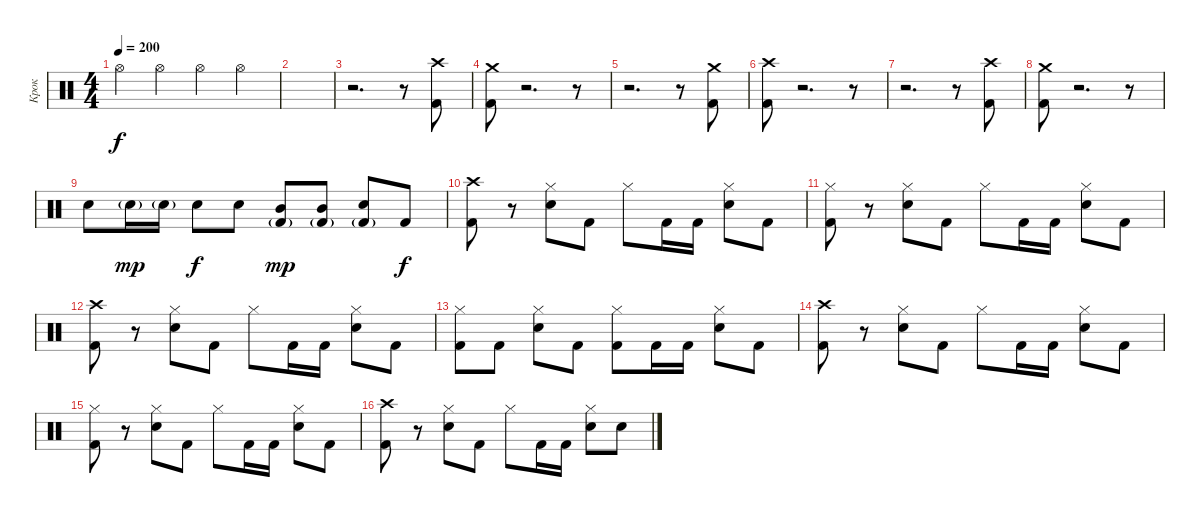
\track ("Крок" "Крок") {instrument percussion}
\staff {score}
\articulation defaults
\ts (4 4)
\tempo 200
\tempo 140
\tempo 200
\clef neutral
\ks c "Hi-Hat (open)".4{dy f} "Hi-Hat (open)".4 "Hi-Hat (open)".4 "Hi-Hat (open)".4
|
|
r.2{d} r.8 ("Crash high (hit)" "Kick (hit) 2").8 |
("Crash medium (hit)" "Kick (hit) 2").8 r.2{d} r.8 |
r.2{d} r.8 ("Crash medium (hit)" "Kick (hit) 2").8 |
("Crash high (hit)" "Kick (hit) 2").8 r.2{d} r.8 |
r.2{d} r.8 ("Crash high (hit)" "Kick (hit) 2").8 |
("Crash medium (hit)" "Kick (hit) 2").8 r.2{d} r.8 |
"Electric Snare (hit)".8 "Electric Snare (hit)"{g}.16{dy mp} "Electric Snare (hit)"{g}.16 "Electric Snare (hit)".8{dy f} "Electric Snare (hit)".8 ("Mid Tom (hit)" "Kick (hit) 2"{g}).8{dy mp} ("Mid Tom (hit)" "Kick (hit) 2"{g}).8 ("Electric Snare (hit)" "Kick (hit) 2"{g}).8 "Kick (hit) 2".8{dy f} |
("Crash high (hit)" "Kick (hit) 2").8 r.8 ("Hi-Hat (closed)" "Electric Snare (hit)").8 "Kick (hit) 2".8 "Hi-Hat (closed)".8 "Kick (hit) 2".16 "Kick (hit) 2".16 ("Hi-Hat (closed)" "Electric Snare (hit)").8 "Kick (hit) 2".8 |
("Hi-Hat (closed)" "Kick (hit) 2").8 r.8 ("Hi-Hat (closed)" "Electric Snare (hit)").8 "Kick (hit) 2".8 "Hi-Hat (closed)".8 "Kick (hit) 2".16 "Kick (hit) 2".16 ("Hi-Hat (closed)" "Electric Snare (hit)").8 "Kick (hit) 2".8 |
("Crash high (hit)" "Kick (hit) 2").8 r.8 ("Hi-Hat (closed)" "Electric Snare (hit)").8 "Kick (hit) 2".8 "Hi-Hat (closed)".8 "Kick (hit) 2".16 "Kick (hit) 2".16 ("Hi-Hat (closed)" "Electric Snare (hit)").8 "Kick (hit) 2".8 |
("Kick (hit) 2" "Hi-Hat (closed)").8 "Kick (hit) 2".8 ("Electric Snare (hit)" "Hi-Hat (closed)").8 "Kick (hit) 2".8 ("Hi-Hat (closed)" "Kick (hit) 2").8 "Kick (hit) 2".16 "Kick (hit) 2".16 ("Hi-Hat (closed)" "Electric Snare (hit)").8 "Kick (hit) 2".8 |
("Crash high (hit)" "Kick (hit) 2").8 r.8 ("Hi-Hat (closed)" "Electric Snare (hit)").8 "Kick (hit) 2".8 "Hi-Hat (closed)".8 "Kick (hit) 2".16 "Kick (hit) 2".16 ("Hi-Hat (closed)" "Electric Snare (hit)").8 "Kick (hit) 2".8 |
("Hi-Hat (closed)" "Kick (hit) 2").8 r.8 ("Hi-Hat (closed)" "Electric Snare (hit)").8 "Kick (hit) 2".8 "Hi-Hat (closed)".8 "Kick (hit) 2".16 "Kick (hit) 2".16 ("Hi-Hat (closed)" "Electric Snare (hit)").8 "Kick (hit) 2".8 |
("Crash high (hit)" "Kick (hit) 2").8 r.8 ("Hi-Hat (closed)" "Electric Snare (hit)").8 "Kick (hit) 2".8 "Hi-Hat (closed)".8 "Kick (hit) 2".16 "Kick (hit) 2".16 ("Hi-Hat (closed)" "Electric Snare (hit)").8 "Electric Snare (hit)".8
